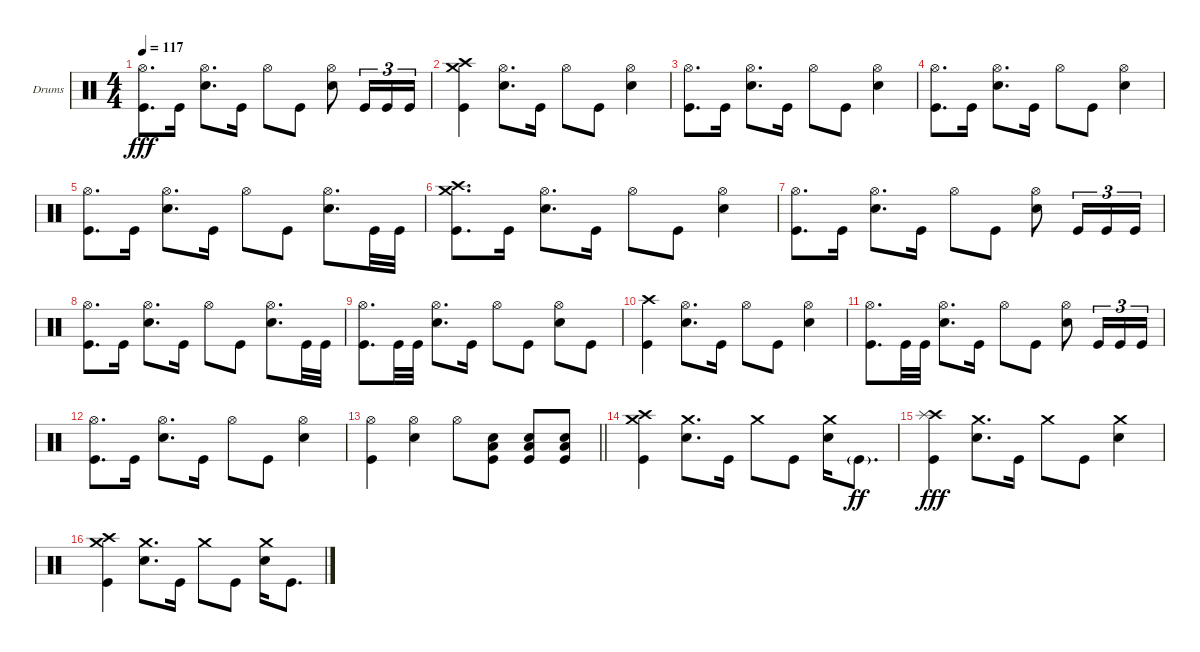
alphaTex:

\defaultSystemsLayout 4
\bracketExtendMode groupsimilarinstruments
\firstSystemTrackNameOrientation horizontal
\otherSystemsTrackNameOrientation horizontal
\track ("Drumkit" "Drums") {instrument percussion}
\staff {score}
\articulation defaults
\ts (4 4)
\tempo 117
\clef neutral
\scale
0.333333
\ks c
("Hi-Hat (open)" "Kick (hit)").8{d dy fff} "Kick (hit)".16 ("Hi-Hat (open)" "Snare (hit) 2").8{d} "Kick (hit)".16 "Hi-Hat (open)".8 "Kick (hit)".8 ("Hi-Hat (open)" "Snare (hit) 2").8 "Kick (hit)".16{tu (3 2)} "Kick (hit)".16{tu (3 2)} "Kick (hit)".16{tu (3 2)} |
\scale
0.333333 ("Crash high (hit)" "Crash medium (hit)" "Kick (hit)").4 ("Hi-Hat (open)" "Snare (hit) 2").8{d} "Kick (hit)".16 "Hi-Hat (open)".8 "Kick (hit)".8 ("Hi-Hat (open)" "Snare (hit) 2").4 |
\scale
0.333333 ("Hi-Hat (open)" "Kick (hit)").8{d} "Kick (hit)".16 ("Hi-Hat (open)" "Snare (hit) 2").8{d} "Kick (hit)".16 "Hi-Hat (open)".8 "Kick (hit)".8 ("Hi-Hat (open)" "Snare (hit) 2").4 |
\scale
0.333333 ("Hi-Hat (open)" "Kick (hit)").8{d} "Kick (hit)".16 ("Hi-Hat (open)" "Snare (hit) 2").8{d} "Kick (hit)".16 "Hi-Hat (open)".8 "Kick (hit)".8 ("Hi-Hat (open)" "Snare (hit) 2").4 |
\scale
0.333333 ("Hi-Hat (open)" "Kick (hit)").8{d} "Kick (hit)".16 ("Hi-Hat (open)" "Snare (hit) 2").8{d} "Kick (hit)".16 "Hi-Hat (open)".8 "Kick (hit)".8 ("Hi-Hat (open)" "Snare (hit) 2").8{d} "Kick (hit)".32 "Kick (hit)".32 |
\scale
0.333333 ("Crash high (hit)" "Crash medium (hit)" "Kick (hit)").8{d} "Kick (hit)".16 ("Hi-Hat (open)" "Snare (hit) 2").8{d} "Kick (hit)".16 "Hi-Hat (open)".8 "Kick (hit)".8 ("Hi-Hat (open)" "Snare (hit) 2").4 |
\scale
0.333333 ("Hi-Hat (open)" "Kick (hit)").8{d} "Kick (hit)".16 ("Hi-Hat (open)" "Snare (hit) 2").8{d} "Kick (hit)".16 "Hi-Hat (open)".8 "Kick (hit)".8 ("Hi-Hat (open)" "Snare (hit) 2").8 "Kick (hit)".16{tu (3 2)} "Kick (hit)".16{tu (3 2)} "Kick (hit)".16{tu (3 2)} |
\scale
0.333333 ("Hi-Hat (open)" "Kick (hit)").8{d} "Kick (hit)".16 ("Hi-Hat (open)" "Snare (hit) 2").8{d} "Kick (hit)".16 "Hi-Hat (open)".8 "Kick (hit)".8 ("Hi-Hat (open)" "Snare (hit) 2").8{d} "Kick (hit)".32 "Kick (hit)".32 |
\scale
0.333333 ("Hi-Hat (open)" "Kick (hit)").8{d} "Kick (hit)".32 "Kick (hit)".32 ("Hi-Hat (open)" "Snare (hit) 2").8{d} "Kick (hit)".16 "Hi-Hat (open)".8 "Kick (hit)".8 ("Hi-Hat (open)" "Snare (hit) 2").8 "Kick (hit)".8 |
\scale
0.333333 ("Crash high (hit)" "Kick (hit)").4 ("Hi-Hat (open)" "Snare (hit) 2").8{d} "Kick (hit)".16 "Hi-Hat (open)".8 "Kick (hit)".8 ("Hi-Hat (open)" "Snare (hit) 2").4 |
\scale
0.333333 ("Hi-Hat (open)" "Kick (hit)").8{d} "Kick (hit)".32 "Kick (hit)".32 ("Hi-Hat (open)" "Snare (hit) 2").8{d} "Kick (hit)".16 "Hi-Hat (open)".8 "Kick (hit)".8 ("Hi-Hat (open)" "Snare (hit) 2").8 "Kick (hit)".16{tu (3 2)} "Kick (hit)".16{tu (3 2)} "Kick (hit)".16{tu (3 2)} |
\scale
0.333333 ("Hi-Hat (open)" "Kick (hit)").8{d} "Kick (hit)".16 ("Hi-Hat (open)" "Snare (hit) 2").8{d} "Kick (hit)".16 "Hi-Hat (open)".8 "Kick (hit)".8 ("Hi-Hat (open)" "Snare (hit) 2").4 |
\scale
0.333333
\barLineRight lightlight
("Hi-Hat (open)" "Kick (hit)").4 ("Hi-Hat (open)" "Snare (hit) 2").4 "Hi-Hat (open)".8 ("Low Tom (hit)" "Snare (hit) 2" "Kick (hit)").8 ("Low Tom (hit)" "Snare (hit) 2" "Kick (hit)").8 ("Low Tom (hit)" "Snare (hit) 2" "Kick (hit)").8 |
\scale
0.333333 ("Crash high (hit)" "Crash medium (hit)" "Kick (hit)").4 ("Crash medium (hit)" "Snare (hit) 2").8{d} "Kick (hit)".16 "Crash medium (hit)".8 "Kick (hit)".8 ("Crash medium (hit)" "Snare (hit) 2").16 "Kick (hit)"{g}.8{d dy ff} |
\scale
0.333333 ("Crash high (hit)" "Splash (hit)" "Kick (hit)").4{dy fff} ("Crash medium (hit)" "Snare (hit) 2").8{d} "Kick (hit)".16 "Crash medium (hit)".8 "Kick (hit)".8 ("Crash medium (hit)" "Snare (hit) 2").4 |
\scale
0.333333 ("Crash high (hit)" "Crash medium (hit)" "Kick (hit)").4 ("Crash medium (hit)" "Snare (hit) 2").8{d} "Kick (hit)".16 "Crash medium (hit)".8 "Kick (hit)".8 ("Crash medium (hit)" "Snare (hit) 2").16 "Kick (hit)".8{d}
